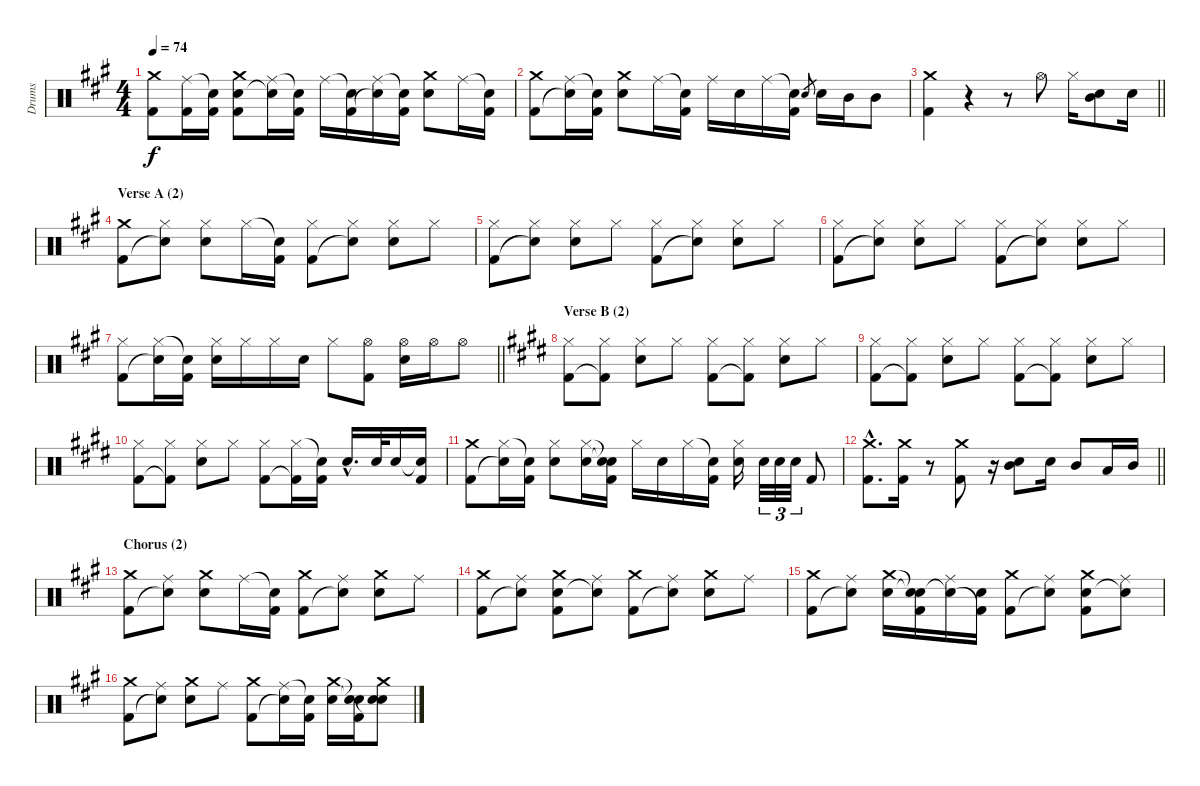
\track ("Drums" "Drums") {instrument percussion}
\staff {score}
\articulation defaults
\ts (4 4)
\tempo 74
\clef neutral
\ks a
("Crash medium (hit)" "Kick (hit) 2").8{dy f} ("Ride (middle)" "Kick (hit) 2").16 ("Snare (hit)"{t} "Kick (hit) 2").16 ("Crash medium (hit)" "Electric Snare (hit)" "Kick (hit) 2").8 ("Ride (middle)" "Snare (hit)"{t}).16 ("Snare (hit)"{t} "Kick (hit) 2").16 "Ride (middle)".16 ("Snare (hit)"{t} "Kick (hit) 2").16 ("Ride (middle)" "Snare (hit)"{t}).16 ("Snare (hit)"{t} "Kick (hit) 2").16 ("Crash medium (hit)" "Electric Snare (hit)").8 "Ride (middle)".16 ("Snare (hit)"{t} "Kick (hit) 2").16 |
("Crash medium (hit)" "Kick (hit) 2").8 ("Ride (middle)" "Snare (hit)"{t}).16 ("Snare (hit)"{t} "Kick (hit) 2").16 ("Crash medium (hit)" "Electric Snare (hit)").8 "Ride (middle)".16 ("Snare (hit)"{t} "Kick (hit) 2").16 "Ride (middle)".16 "Electric Snare (hit)".16 "Ride (middle)".16 ("Snare (hit)"{t} "Kick (hit) 2").16 "Electric Snare (hit)".8{gr} "Electric Snare (hit)".16 "Mid Tom (hit)".16 "Mid Tom (hit)".8 |
\barLineRight lightlight
("Crash medium (hit)" "Kick (hit) 2").4 r.4 r.8 "Hi-Hat (open)".8 "Hi-Hat (closed)".16 ("Electric Snare (hit)" "Mid Tom (hit)").8 "Electric Snare (hit)".16 |
\section ("" "Verse A (2)")
\ks f#minor
("Crash medium (hit)" "Kick (hit) 2").8 ("Hi-Hat (closed)" "Snare (hit)"{t}).8 ("Hi-Hat (closed)" "Electric Snare (hit)").8 "Hi-Hat (closed)".16 ("Snare (hit)"{t} "Kick (hit) 2").16 ("Hi-Hat (closed)" "Kick (hit) 2").8 ("Hi-Hat (closed)" "Snare (hit)"{t}).8 ("Hi-Hat (closed)" "Electric Snare (hit)").8 "Hi-Hat (closed)".8 |
("Hi-Hat (closed)" "Kick (hit) 2").8 ("Hi-Hat (closed)" "Snare (hit)"{t}).8 ("Hi-Hat (closed)" "Electric Snare (hit)").8 "Hi-Hat (closed)".8 ("Hi-Hat (closed)" "Kick (hit) 2").8 ("Hi-Hat (closed)" "Snare (hit)"{t}).8 ("Hi-Hat (closed)" "Electric Snare (hit)").8 "Hi-Hat (closed)".8 |
("Hi-Hat (closed)" "Kick (hit) 2").8 ("Hi-Hat (closed)" "Snare (hit)"{t}).8 ("Hi-Hat (closed)" "Electric Snare (hit)").8 "Hi-Hat (closed)".8 ("Hi-Hat (closed)" "Kick (hit) 2").8 ("Hi-Hat (closed)" "Snare (hit)"{t}).8 ("Hi-Hat (closed)" "Electric Snare (hit)").8 "Hi-Hat (closed)".8 |
\barLineRight lightlight
("Hi-Hat (closed)" "Kick (hit) 2").8 ("Hi-Hat (closed)" "Snare (hit)"{t}).16 ("Snare (hit)"{t} "Kick (hit) 2").16 ("Hi-Hat (closed)" "Electric Snare (hit)").16 "Hi-Hat (closed)".16 "Hi-Hat (closed)".16 "Electric Snare (hit)".16 "Hi-Hat (closed)".8 ("Hi-Hat (open)" "Kick (hit) 2").8 ("Hi-Hat (open)" "Electric Snare (hit)").16 "Hi-Hat (open)".16 "Hi-Hat (open)".8 |
\section ("" "Verse B (2)")
\ks c#minor
("Hi-Hat (closed)" "Kick (hit) 2").8 ("Hi-Hat (closed)" "Kick (hit) 2"{t}).8 ("Hi-Hat (closed)" "Electric Snare (hit)").8 "Hi-Hat (closed)".8 ("Hi-Hat (closed)" "Kick (hit) 2").8 ("Hi-Hat (closed)" "Kick (hit) 2"{t}).8 ("Hi-Hat (closed)" "Electric Snare (hit)").8 "Hi-Hat (closed)".8 |
("Hi-Hat (closed)" "Kick (hit) 2").8 ("Hi-Hat (closed)" "Kick (hit) 2"{t}).8 ("Hi-Hat (closed)" "Electric Snare (hit)").8 "Hi-Hat (closed)".8 ("Hi-Hat (closed)" "Kick (hit) 2").8 ("Hi-Hat (closed)" "Kick (hit) 2"{t}).8 ("Hi-Hat (closed)" "Electric Snare (hit)").8 "Hi-Hat (closed)".8 |
("Hi-Hat (closed)" "Kick (hit) 2").8 ("Hi-Hat (closed)" "Kick (hit) 2"{t}).8 ("Hi-Hat (closed)" "Electric Snare (hit)").8 "Hi-Hat (closed)".8 ("Hi-Hat (closed)" "Kick (hit) 2").8 ("Hi-Hat (closed)" "Kick (hit) 2"{t}).16 ("Snare (hit)"{t} "Kick (hit) 2").16 "Electric Snare (hit)"{hac}.16{d} "Electric Snare (hit)".32 "Electric Snare (hit)".16 ("Snare (hit)"{t} "Kick (hit) 2").16 |
("Crash medium (hit)" "Kick (hit) 2").8 ("Hi-Hat (closed)" "Snare (hit)"{t}).16 ("Snare (hit)"{t} "Kick (hit) 2").16 ("Hi-Hat (closed)" "Electric Snare (hit)").8 ("Hi-Hat (closed)" "Electric Snare (hit)").16 ("Snare (hit)"{t} "Snare (hit)"{t} "Kick (hit) 2").16 "Hi-Hat (closed)".16 "Electric Snare (hit)".16 "Hi-Hat (closed)".16 ("Snare (hit)"{t} "Kick (hit) 2").16 ("Hi-Hat (closed)" "Electric Snare (hit)").16 "Electric Snare (hit)".32{tu (3 2)} "Electric Snare (hit)".32{tu (3 2)} "Electric Snare (hit)".32{tu (3 2)} "Kick (hit) 2".8 |
\barLineRight lightlight
("Crash medium (hit)"{hac} "Kick (hit) 2"{hac}).8{d} ("Crash medium (hit)" "Kick (hit) 2").16 r.8 ("Crash medium (hit)" "Kick (hit) 2").8 r.16 ("Electric Snare (hit)" "Mid Tom (hit)").8 "Electric Snare (hit)".16 "Mid Tom (hit)".8 "Low Floor Tom (hit)".16 "Mid Tom (hit)".16 |
\section ("" "Chorus (2)")
\ks a
("Crash medium (hit)" "Kick (hit) 2").8 ("Ride (middle)" "Snare (hit)"{t}).8 ("Crash medium (hit)" "Electric Snare (hit)").8 "Ride (middle)".16 ("Snare (hit)"{t} "Kick (hit) 2").16 ("Crash medium (hit)" "Kick (hit) 2").8 ("Ride (middle)" "Snare (hit)"{t}).8 ("Crash medium (hit)" "Electric Snare (hit)").8 "Ride (middle)".8 |
("Crash medium (hit)" "Kick (hit) 2").8 ("Ride (middle)" "Snare (hit)"{t}).8 ("Crash medium (hit)" "Electric Snare (hit)" "Kick (hit) 2").8 ("Ride (middle)" "Snare (hit)"{t}).8 ("Crash medium (hit)" "Kick (hit) 2").8 ("Ride (middle)" "Snare (hit)"{t}).8 ("Crash medium (hit)" "Electric Snare (hit)").8 "Ride (middle)".8 |
("Crash medium (hit)" "Kick (hit) 2").8 ("Ride (middle)" "Snare (hit)"{t}).8 ("Crash medium (hit)" "Electric Snare (hit)").16 ("Snare (hit)"{t} "Snare (hit)"{t} "Kick (hit) 2").16 ("Ride (middle)" "Snare (hit)"{t}).16 ("Electric Snare (hit)" "Kick (hit) 2"{t}).16 ("Crash medium (hit)" "Kick (hit) 2").8 ("Ride (middle)" "Snare (hit)"{t}).8 ("Crash medium (hit)" "Electric Snare (hit)" "Kick (hit) 2").8 ("Ride (middle)" "Snare (hit)"{t}).8 |
("Crash medium (hit)" "Kick (hit) 2").8 ("Ride (middle)" "Snare (hit)"{t}).8 ("Crash medium (hit)" "Electric Snare (hit)").8 "Ride (middle)".8 ("Crash medium (hit)" "Kick (hit) 2").8 ("Ride (middle)" "Snare (hit)"{t}).16 ("Snare (hit)"{t} "Kick (hit) 2").16 ("Crash medium (hit)" "Electric Snare (hit)").16 ("Snare (hit)"{t} "Snare (hit)"{t} "Kick (hit) 2").16 ("Crash medium (hit)" "Electric Snare (hit)" "Snare (hit)"{t}).8
